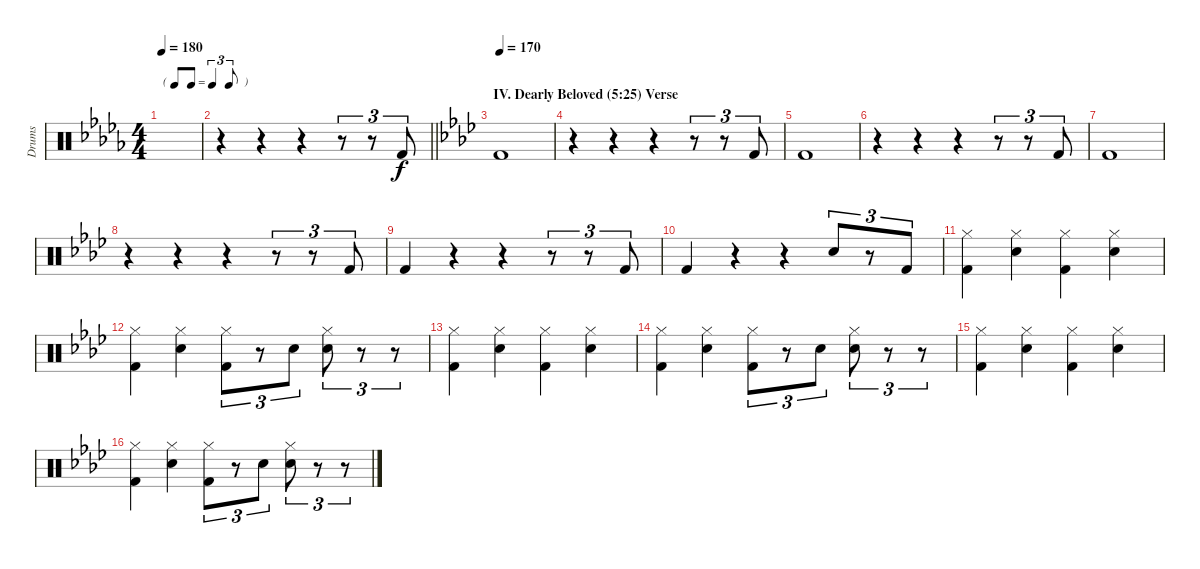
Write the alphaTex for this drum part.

\track ("Drums" "Drums") {instrument percussion}
\staff {score}
\articulation defaults
\ts (4 4)
\tf triplet8th
\tempo 180
\clef neutral
\ks db
|
\barLineRight lightlight
r.4 r.4 r.4 r.8{tu (3 2)} r.8{tu (3 2)} "Kick (hit) 2".8{tu (3 2)} |
\section ("" "IV. Dearly Beloved (5:25) Verse")
\tempo 170
\ks ab "Kick (hit) 2".1
|
r.4 r.4 r.4 r.8{tu (3 2)} r.8{tu (3 2)} "Kick (hit) 2".8{tu (3 2)} |
"Kick (hit) 2".1 |
r.4 r.4 r.4 r.8{tu (3 2)} r.8{tu (3 2)} "Kick (hit) 2".8{tu (3 2)} |
"Kick (hit) 2".1 |
r.4 r.4 r.4 r.8{tu (3 2)} r.8{tu (3 2)} "Kick (hit) 2".8{tu (3 2)} |
"Kick (hit) 2".4 r.4 r.4 r.8{tu (3 2)} r.8{tu (3 2)} "Kick (hit) 2".8{tu (3 2)} |
"Kick (hit) 2".4 r.4 r.4 "Snare (hit) 2".8{tu (3 2)} r.8{tu (3 2)} "Kick (hit) 2".8{tu (3 2)} |
("Hi-Hat (closed)" "Kick (hit) 2").4 ("Hi-Hat (closed)" "Snare (hit) 2").4 ("Hi-Hat (closed)" "Kick (hit) 2").4 ("Hi-Hat (closed)" "Snare (hit) 2").4 |
("Hi-Hat (closed)" "Kick (hit) 2").4 ("Hi-Hat (closed)" "Snare (hit) 2").4 ("Hi-Hat (closed)" "Kick (hit) 2").8{tu (3 2)} r.8{tu (3 2)} "Snare (hit) 2".8{tu (3 2)} ("Hi-Hat (closed)" "Snare (hit) 2").8{tu (3 2)} r.8{tu (3 2)} r.8{tu (3 2)} |
("Hi-Hat (closed)" "Kick (hit) 2").4 ("Hi-Hat (closed)" "Snare (hit) 2").4 ("Hi-Hat (closed)" "Kick (hit) 2").4 ("Hi-Hat (closed)" "Snare (hit) 2").4 |
("Hi-Hat (closed)" "Kick (hit) 2").4 ("Hi-Hat (closed)" "Snare (hit) 2").4 ("Hi-Hat (closed)" "Kick (hit) 2").8{tu (3 2)} r.8{tu (3 2)} "Snare (hit) 2".8{tu (3 2)} ("Hi-Hat (closed)" "Snare (hit) 2").8{tu (3 2)} r.8{tu (3 2)} r.8{tu (3 2)} |
("Hi-Hat (closed)" "Kick (hit) 2").4 ("Hi-Hat (closed)" "Snare (hit) 2").4 ("Hi-Hat (closed)" "Kick (hit) 2").4 ("Hi-Hat (closed)" "Snare (hit) 2").4 |
("Hi-Hat (closed)" "Kick (hit) 2").4 ("Hi-Hat (closed)" "Snare (hit) 2").4 ("Hi-Hat (closed)" "Kick (hit) 2").8{tu (3 2)} r.8{tu (3 2)} "Snare (hit) 2".8{tu (3 2)} ("Hi-Hat (closed)" "Snare (hit) 2").8{tu (3 2)} r.8{tu (3 2)} r.8{tu (3 2)}
